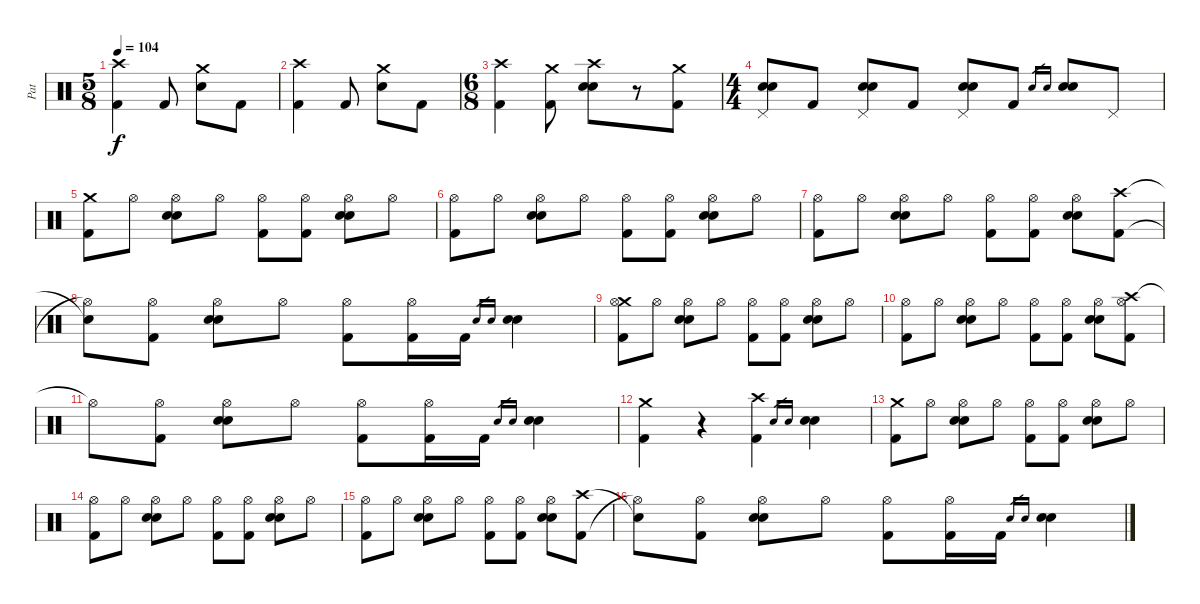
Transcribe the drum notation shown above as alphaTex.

\track ("Pat" "Pat") {instrument percussion}
\staff {score}
\articulation defaults
\ts (5 8)
\tempo 104
\clef neutral
\ks c
("Crash high (hit)" "Kick (hit) 2").4{dy f} "Kick (hit) 2".8 ("Crash medium (hit)" "Electric Snare (hit)").8 "Kick (hit) 2".8 |
("Crash high (hit)" "Kick (hit) 2").4 "Kick (hit) 2".8 ("Crash medium (hit)" "Electric Snare (hit)").8 "Kick (hit) 2".8 |
\ts (6 8)
("Crash high (hit)" "Kick (hit) 2").4 ("Crash medium (hit)" "Kick (hit) 2").8 ("Crash high (hit)" "Electric Snare (hit)" "Snare (hit) 2").8 r.8 ("Crash medium (hit)" "Kick (hit) 2").8 |
\ts (4 4)
("Pedal Hi-Hat (hit)" "Electric Snare (hit)" "Snare (hit) 2").8 "Kick (hit) 2".8 ("Pedal Hi-Hat (hit)" "Electric Snare (hit)" "Snare (hit) 2").8 "Kick (hit) 2".8 ("Pedal Hi-Hat (hit)" "Electric Snare (hit)" "Snare (hit) 2").8 "Kick (hit) 2".8 "Electric Snare (hit)".16{gr} "Snare (hit) 2".16{gr} ("Electric Snare (hit)" "Snare (hit) 2").8 "Pedal Hi-Hat (hit)".8 |
("Crash medium (hit)" "Kick (hit) 2").8 "Hi-Hat (open)".8 ("Hi-Hat (open)" "Electric Snare (hit)" "Snare (hit) 2").8 "Hi-Hat (open)".8 ("Hi-Hat (open)" "Kick (hit) 2").8 ("Hi-Hat (open)" "Kick (hit) 2").8 ("Hi-Hat (open)" "Electric Snare (hit)" "Snare (hit) 2").8 "Hi-Hat (open)".8 |
("Hi-Hat (open)" "Kick (hit) 2").8 "Hi-Hat (open)".8 ("Hi-Hat (open)" "Electric Snare (hit)" "Snare (hit) 2").8 "Hi-Hat (open)".8 ("Hi-Hat (open)" "Kick (hit) 2").8 ("Hi-Hat (open)" "Kick (hit) 2").8 ("Hi-Hat (open)" "Electric Snare (hit)" "Snare (hit) 2").8 "Hi-Hat (open)".8 |
("Hi-Hat (open)" "Kick (hit) 2").8 "Hi-Hat (open)".8 ("Hi-Hat (open)" "Electric Snare (hit)" "Snare (hit) 2").8 "Hi-Hat (open)".8 ("Hi-Hat (open)" "Kick (hit) 2").8 ("Hi-Hat (open)" "Kick (hit) 2").8 ("Hi-Hat (open)" "Electric Snare (hit)" "Snare (hit) 2").8 ("Crash high (hit)" "Kick (hit) 2").8 |
("Snare (hit)"{t} "Hi-Hat (open)"{t}).8 ("Hi-Hat (open)" "Kick (hit) 2").8 ("Hi-Hat (open)" "Electric Snare (hit)" "Snare (hit) 2").8 "Hi-Hat (open)".8 ("Hi-Hat (open)" "Kick (hit) 2").8 ("Hi-Hat (open)" "Kick (hit) 2").16 "Kick (hit) 2".16 "Electric Snare (hit)".16{gr} "Snare (hit) 2".16{gr} ("Electric Snare (hit)" "Snare (hit) 2").4 |
("Crash medium (hit)" "Hi-Hat (open)" "Kick (hit) 2").8 "Hi-Hat (open)".8 ("Hi-Hat (open)" "Electric Snare (hit)" "Snare (hit) 2").8 "Hi-Hat (open)".8 ("Hi-Hat (open)" "Kick (hit) 2").8 ("Hi-Hat (open)" "Kick (hit) 2").8 ("Hi-Hat (open)" "Electric Snare (hit)" "Snare (hit) 2").8 "Hi-Hat (open)".8 |
("Hi-Hat (open)" "Kick (hit) 2").8 "Hi-Hat (open)".8 ("Hi-Hat (open)" "Electric Snare (hit)" "Snare (hit) 2").8 "Hi-Hat (open)".8 ("Hi-Hat (open)" "Kick (hit) 2").8 ("Hi-Hat (open)" "Kick (hit) 2").8 ("Hi-Hat (open)" "Electric Snare (hit)" "Snare (hit) 2").8 ("Crash high (hit)" "Hi-Hat (open)" "Kick (hit) 2").8 |
"Hi-Hat (open)"{t}.8 ("Hi-Hat (open)" "Kick (hit) 2").8 ("Hi-Hat (open)" "Electric Snare (hit)" "Snare (hit) 2").8 "Hi-Hat (open)".8 ("Hi-Hat (open)" "Kick (hit) 2").8 ("Hi-Hat (open)" "Kick (hit) 2").16 "Kick (hit) 2".16 "Electric Snare (hit)".16{gr} "Snare (hit) 2".16{gr} ("Electric Snare (hit)" "Snare (hit) 2").4 |
("Crash medium (hit)" "Kick (hit) 2").4 r.4 ("Crash high (hit)" "Kick (hit) 2").4 "Electric Snare (hit)".16{gr} "Snare (hit) 2".16{gr} ("Electric Snare (hit)" "Snare (hit) 2").4 |
("Crash medium (hit)" "Kick (hit) 2").8 "Hi-Hat (open)".8 ("Hi-Hat (open)" "Electric Snare (hit)" "Snare (hit) 2").8 "Hi-Hat (open)".8 ("Hi-Hat (open)" "Kick (hit) 2").8 ("Hi-Hat (open)" "Kick (hit) 2").8 ("Hi-Hat (open)" "Electric Snare (hit)" "Snare (hit) 2").8 "Hi-Hat (open)".8 |
("Hi-Hat (open)" "Kick (hit) 2").8 "Hi-Hat (open)".8 ("Hi-Hat (open)" "Electric Snare (hit)" "Snare (hit) 2").8 "Hi-Hat (open)".8 ("Hi-Hat (open)" "Kick (hit) 2").8 ("Hi-Hat (open)" "Kick (hit) 2").8 ("Hi-Hat (open)" "Electric Snare (hit)" "Snare (hit) 2").8 "Hi-Hat (open)".8 |
("Hi-Hat (open)" "Kick (hit) 2").8 "Hi-Hat (open)".8 ("Hi-Hat (open)" "Electric Snare (hit)" "Snare (hit) 2").8 "Hi-Hat (open)".8 ("Hi-Hat (open)" "Kick (hit) 2").8 ("Hi-Hat (open)" "Kick (hit) 2").8 ("Hi-Hat (open)" "Electric Snare (hit)" "Snare (hit) 2").8 ("Crash high (hit)" "Kick (hit) 2").8 |
("Snare (hit)"{t} "Hi-Hat (open)"{t}).8 ("Hi-Hat (open)" "Kick (hit) 2").8 ("Hi-Hat (open)" "Electric Snare (hit)" "Snare (hit) 2").8 "Hi-Hat (open)".8 ("Hi-Hat (open)" "Kick (hit) 2").8 ("Hi-Hat (open)" "Kick (hit) 2").16 "Kick (hit) 2".16 "Electric Snare (hit)".16{gr} "Snare (hit) 2".16{gr} ("Electric Snare (hit)" "Snare (hit) 2").4
